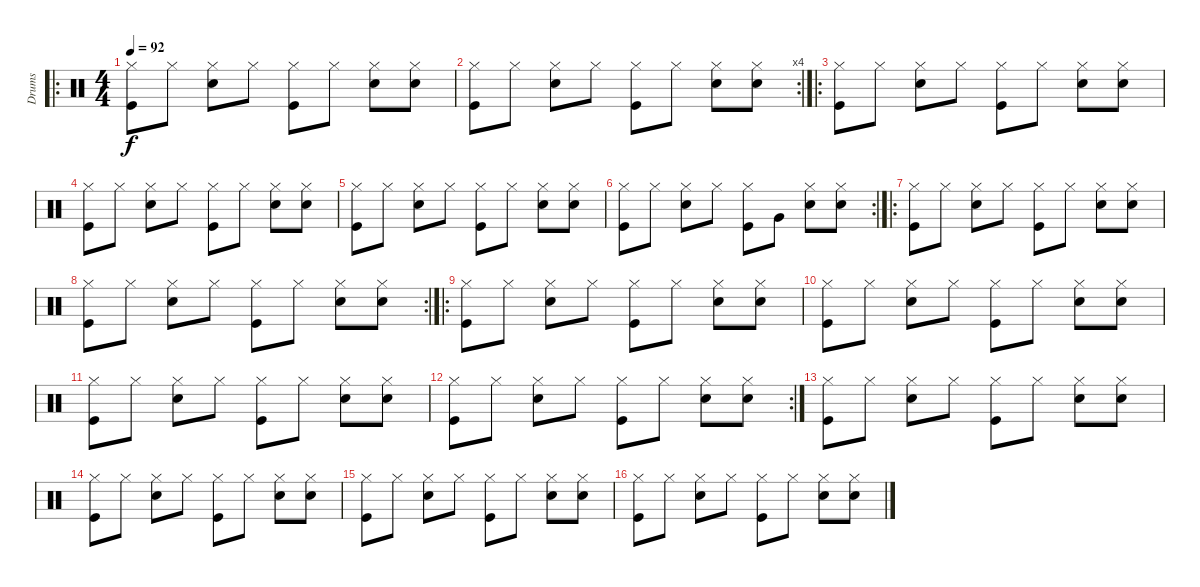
\track ("Drums" "Drums") {instrument percussion}
\staff {score}
\articulation defaults
\ro
\ts (4 4)
\tempo 92
\clef neutral
\ks c
("Hi-Hat (closed)" "Kick (hit)").8{dy f} "Hi-Hat (closed)".8 ("Hi-Hat (closed)" "Snare (hit) 2").8 "Hi-Hat (closed)".8 ("Hi-Hat (closed)" "Kick (hit)").8 "Hi-Hat (closed)".8 ("Hi-Hat (closed)" "Snare (hit) 2").8 ("Hi-Hat (closed)" "Snare (hit) 2").8 |
\rc 4
("Hi-Hat (closed)" "Kick (hit)").8 "Hi-Hat (closed)".8 ("Hi-Hat (closed)" "Snare (hit) 2").8 "Hi-Hat (closed)".8 ("Hi-Hat (closed)" "Kick (hit)").8 "Hi-Hat (closed)".8 ("Hi-Hat (closed)" "Snare (hit) 2").8 ("Hi-Hat (closed)" "Snare (hit) 2").8 |
\ro
("Hi-Hat (closed)" "Kick (hit)").8 "Hi-Hat (closed)".8 ("Hi-Hat (closed)" "Snare (hit) 2").8 "Hi-Hat (closed)".8 ("Hi-Hat (closed)" "Kick (hit)").8 "Hi-Hat (closed)".8 ("Hi-Hat (closed)" "Snare (hit) 2").8 ("Hi-Hat (closed)" "Snare (hit) 2").8 |
("Hi-Hat (closed)" "Kick (hit)").8 "Hi-Hat (closed)".8 ("Hi-Hat (closed)" "Snare (hit) 2").8 "Hi-Hat (closed)".8 ("Hi-Hat (closed)" "Kick (hit)").8 "Hi-Hat (closed)".8 ("Hi-Hat (closed)" "Snare (hit) 2").8 ("Hi-Hat (closed)" "Snare (hit) 2").8 |
("Hi-Hat (closed)" "Kick (hit)").8 "Hi-Hat (closed)".8 ("Hi-Hat (closed)" "Snare (hit) 2").8 "Hi-Hat (closed)".8 ("Hi-Hat (closed)" "Kick (hit)").8 "Hi-Hat (closed)".8 ("Hi-Hat (closed)" "Snare (hit) 2").8 ("Hi-Hat (closed)" "Snare (hit) 2").8 |
\rc 2
("Hi-Hat (closed)" "Kick (hit)").8 "Hi-Hat (closed)".8 ("Hi-Hat (closed)" "Snare (hit) 2").8 "Hi-Hat (closed)".8 ("Hi-Hat (closed)" "Kick (hit)").8 "Very Low Tom (hit)".8 ("Hi-Hat (closed)" "Snare (hit) 2").8 ("Hi-Hat (closed)" "Snare (hit) 2").8 |
\ro
("Hi-Hat (closed)" "Kick (hit)").8 "Hi-Hat (closed)".8 ("Hi-Hat (closed)" "Snare (hit) 2").8 "Hi-Hat (closed)".8 ("Hi-Hat (closed)" "Kick (hit)").8 "Hi-Hat (closed)".8 ("Hi-Hat (closed)" "Snare (hit) 2").8 ("Hi-Hat (closed)" "Snare (hit) 2").8 |
\rc 2
("Hi-Hat (closed)" "Kick (hit)").8 "Hi-Hat (closed)".8 ("Hi-Hat (closed)" "Snare (hit) 2").8 "Hi-Hat (closed)".8 ("Hi-Hat (closed)" "Kick (hit)").8 "Hi-Hat (closed)".8 ("Hi-Hat (closed)" "Snare (hit) 2").8 ("Hi-Hat (closed)" "Snare (hit) 2").8 |
\ro
("Hi-Hat (closed)" "Kick (hit)").8 "Hi-Hat (closed)".8 ("Hi-Hat (closed)" "Snare (hit) 2").8 "Hi-Hat (closed)".8 ("Hi-Hat (closed)" "Kick (hit)").8 "Hi-Hat (closed)".8 ("Hi-Hat (closed)" "Snare (hit) 2").8 ("Hi-Hat (closed)" "Snare (hit) 2").8 |
("Hi-Hat (closed)" "Kick (hit)").8 "Hi-Hat (closed)".8 ("Hi-Hat (closed)" "Snare (hit) 2").8 "Hi-Hat (closed)".8 ("Hi-Hat (closed)" "Kick (hit)").8 "Hi-Hat (closed)".8 ("Hi-Hat (closed)" "Snare (hit) 2").8 ("Hi-Hat (closed)" "Snare (hit) 2").8 |
("Hi-Hat (closed)" "Kick (hit)").8 "Hi-Hat (closed)".8 ("Hi-Hat (closed)" "Snare (hit) 2").8 "Hi-Hat (closed)".8 ("Hi-Hat (closed)" "Kick (hit)").8 "Hi-Hat (closed)".8 ("Hi-Hat (closed)" "Snare (hit) 2").8 ("Hi-Hat (closed)" "Snare (hit) 2").8 |
\rc 2
("Hi-Hat (closed)" "Kick (hit)").8 "Hi-Hat (closed)".8 ("Hi-Hat (closed)" "Snare (hit) 2").8 "Hi-Hat (closed)".8 ("Hi-Hat (closed)" "Kick (hit)").8 "Hi-Hat (closed)".8 ("Hi-Hat (closed)" "Snare (hit) 2").8 ("Hi-Hat (closed)" "Snare (hit) 2").8 |
("Hi-Hat (closed)" "Kick (hit)").8 "Hi-Hat (closed)".8 ("Hi-Hat (closed)" "Snare (hit) 2").8 "Hi-Hat (closed)".8 ("Hi-Hat (closed)" "Kick (hit)").8 "Hi-Hat (closed)".8 ("Hi-Hat (closed)" "Snare (hit) 2").8 ("Hi-Hat (closed)" "Snare (hit) 2").8 |
("Hi-Hat (closed)" "Kick (hit)").8 "Hi-Hat (closed)".8 ("Hi-Hat (closed)" "Snare (hit) 2").8 "Hi-Hat (closed)".8 ("Hi-Hat (closed)" "Kick (hit)").8 "Hi-Hat (closed)".8 ("Hi-Hat (closed)" "Snare (hit) 2").8 ("Hi-Hat (closed)" "Snare (hit) 2").8 |
("Hi-Hat (closed)" "Kick (hit)").8 "Hi-Hat (closed)".8 ("Hi-Hat (closed)" "Snare (hit) 2").8 "Hi-Hat (closed)".8 ("Hi-Hat (closed)" "Kick (hit)").8 "Hi-Hat (closed)".8 ("Hi-Hat (closed)" "Snare (hit) 2").8 ("Hi-Hat (closed)" "Snare (hit) 2").8 |
("Hi-Hat (closed)" "Kick (hit)").8 "Hi-Hat (closed)".8 ("Hi-Hat (closed)" "Snare (hit) 2").8 "Hi-Hat (closed)".8 ("Hi-Hat (closed)" "Kick (hit)").8 "Hi-Hat (closed)".8 ("Hi-Hat (closed)" "Snare (hit) 2").8 ("Hi-Hat (closed)" "Snare (hit) 2").8
